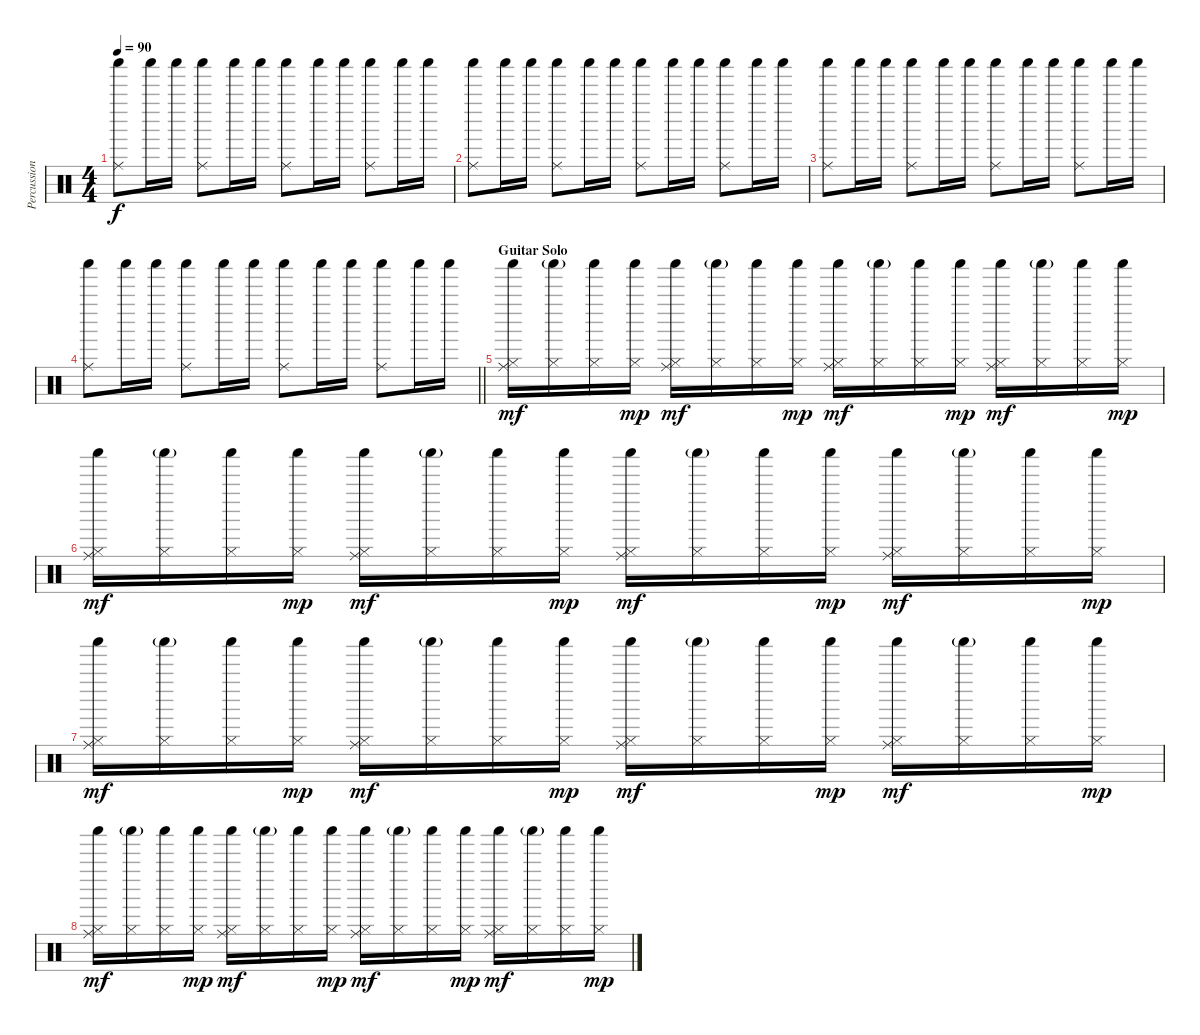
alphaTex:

\track ("Percussion (Chris Maitland)" "Percussion") {instrument percussion}
\staff {score}
\articulation defaults
\ts (4 4)
\tempo 90
\clef neutral
\ks c
("Ride (middle)" "Shaker (hit)").8{dy f} "Shaker (hit)".16 "Shaker (hit)".16 ("Ride (middle)" "Shaker (hit)").8 "Shaker (hit)".16 "Shaker (hit)".16 ("Ride (middle)" "Shaker (hit)").8 "Shaker (hit)".16 "Shaker (hit)".16 ("Ride (middle)" "Shaker (hit)").8 "Shaker (hit)".16 "Shaker (hit)".16 |
("Ride (middle)" "Shaker (hit)").8 "Shaker (hit)".16 "Shaker (hit)".16 ("Ride (middle)" "Shaker (hit)").8 "Shaker (hit)".16 "Shaker (hit)".16 ("Ride (middle)" "Shaker (hit)").8 "Shaker (hit)".16 "Shaker (hit)".16 ("Ride (middle)" "Shaker (hit)").8 "Shaker (hit)".16 "Shaker (hit)".16 |
("Ride (middle)" "Shaker (hit)").8 "Shaker (hit)".16 "Shaker (hit)".16 ("Ride (middle)" "Shaker (hit)").8 "Shaker (hit)".16 "Shaker (hit)".16 ("Ride (middle)" "Shaker (hit)").8 "Shaker (hit)".16 "Shaker (hit)".16 ("Ride (middle)" "Shaker (hit)").8 "Shaker (hit)".16 "Shaker (hit)".16 |
\barLineRight lightlight
("Ride (middle)" "Shaker (hit)").8 "Shaker (hit)".16 "Shaker (hit)".16 ("Ride (middle)" "Shaker (hit)").8 "Shaker (hit)".16 "Shaker (hit)".16 ("Ride (middle)" "Shaker (hit)").8 "Shaker (hit)".16 "Shaker (hit)".16 ("Ride (middle)" "Shaker (hit)").8 "Shaker (hit)".16 "Shaker (hit)".16 |
\section ("" "Guitar Solo")
("Ride (middle)" "Shaker (hit)" "Hi-Hat (closed)").16{dy mf} ("Shaker (hit)"{g} "Hi-Hat (closed)").16 ("Shaker (hit)" "Hi-Hat (closed)").16 ("Shaker (hit)" "Hi-Hat (closed)").16{dy mp} ("Ride (middle)" "Shaker (hit)" "Hi-Hat (closed)").16{dy mf} ("Shaker (hit)"{g} "Hi-Hat (closed)").16 ("Shaker (hit)" "Hi-Hat (closed)").16 ("Shaker (hit)" "Hi-Hat (closed)").16{dy mp} ("Ride (middle)" "Shaker (hit)" "Hi-Hat (closed)").16{dy mf} ("Shaker (hit)"{g} "Hi-Hat (closed)").16 ("Shaker (hit)" "Hi-Hat (closed)").16 ("Shaker (hit)" "Hi-Hat (closed)").16{dy mp} ("Ride (middle)" "Shaker (hit)" "Hi-Hat (closed)").16{dy mf} ("Shaker (hit)"{g} "Hi-Hat (closed)").16 ("Shaker (hit)" "Hi-Hat (closed)").16 ("Shaker (hit)" "Hi-Hat (closed)").16{dy mp} |
("Ride (middle)" "Shaker (hit)" "Hi-Hat (closed)").16{dy mf} ("Shaker (hit)"{g} "Hi-Hat (closed)").16 ("Shaker (hit)" "Hi-Hat (closed)").16 ("Shaker (hit)" "Hi-Hat (closed)").16{dy mp} ("Ride (middle)" "Shaker (hit)" "Hi-Hat (closed)").16{dy mf} ("Shaker (hit)"{g} "Hi-Hat (closed)").16 ("Shaker (hit)" "Hi-Hat (closed)").16 ("Shaker (hit)" "Hi-Hat (closed)").16{dy mp} ("Ride (middle)" "Shaker (hit)" "Hi-Hat (closed)").16{dy mf} ("Shaker (hit)"{g} "Hi-Hat (closed)").16 ("Shaker (hit)" "Hi-Hat (closed)").16 ("Shaker (hit)" "Hi-Hat (closed)").16{dy mp} ("Ride (middle)" "Shaker (hit)" "Hi-Hat (closed)").16{dy mf} ("Shaker (hit)"{g} "Hi-Hat (closed)").16 ("Shaker (hit)" "Hi-Hat (closed)").16 ("Shaker (hit)" "Hi-Hat (closed)").16{dy mp} |
("Ride (middle)" "Shaker (hit)" "Hi-Hat (closed)").16{dy mf} ("Shaker (hit)"{g} "Hi-Hat (closed)").16 ("Shaker (hit)" "Hi-Hat (closed)").16 ("Shaker (hit)" "Hi-Hat (closed)").16{dy mp} ("Ride (middle)" "Shaker (hit)" "Hi-Hat (closed)").16{dy mf} ("Shaker (hit)"{g} "Hi-Hat (closed)").16 ("Shaker (hit)" "Hi-Hat (closed)").16 ("Shaker (hit)" "Hi-Hat (closed)").16{dy mp} ("Ride (middle)" "Shaker (hit)" "Hi-Hat (closed)").16{dy mf} ("Shaker (hit)"{g} "Hi-Hat (closed)").16 ("Shaker (hit)" "Hi-Hat (closed)").16 ("Shaker (hit)" "Hi-Hat (closed)").16{dy mp} ("Ride (middle)" "Shaker (hit)" "Hi-Hat (closed)").16{dy mf} ("Shaker (hit)"{g} "Hi-Hat (closed)").16 ("Shaker (hit)" "Hi-Hat (closed)").16 ("Shaker (hit)" "Hi-Hat (closed)").16{dy mp} |
("Ride (middle)" "Shaker (hit)" "Hi-Hat (closed)").16{dy mf} ("Shaker (hit)"{g} "Hi-Hat (closed)").16 ("Shaker (hit)" "Hi-Hat (closed)").16 ("Shaker (hit)" "Hi-Hat (closed)").16{dy mp} ("Ride (middle)" "Shaker (hit)" "Hi-Hat (closed)").16{dy mf} ("Shaker (hit)"{g} "Hi-Hat (closed)").16 ("Shaker (hit)" "Hi-Hat (closed)").16 ("Shaker (hit)" "Hi-Hat (closed)").16{dy mp} ("Ride (middle)" "Shaker (hit)" "Hi-Hat (closed)").16{dy mf} ("Shaker (hit)"{g} "Hi-Hat (closed)").16 ("Shaker (hit)" "Hi-Hat (closed)").16 ("Shaker (hit)" "Hi-Hat (closed)").16{dy mp} ("Ride (middle)" "Shaker (hit)" "Hi-Hat (closed)").16{dy mf} ("Shaker (hit)"{g} "Hi-Hat (closed)").16 ("Shaker (hit)" "Hi-Hat (closed)").16 ("Shaker (hit)" "Hi-Hat (closed)").16{dy mp}
